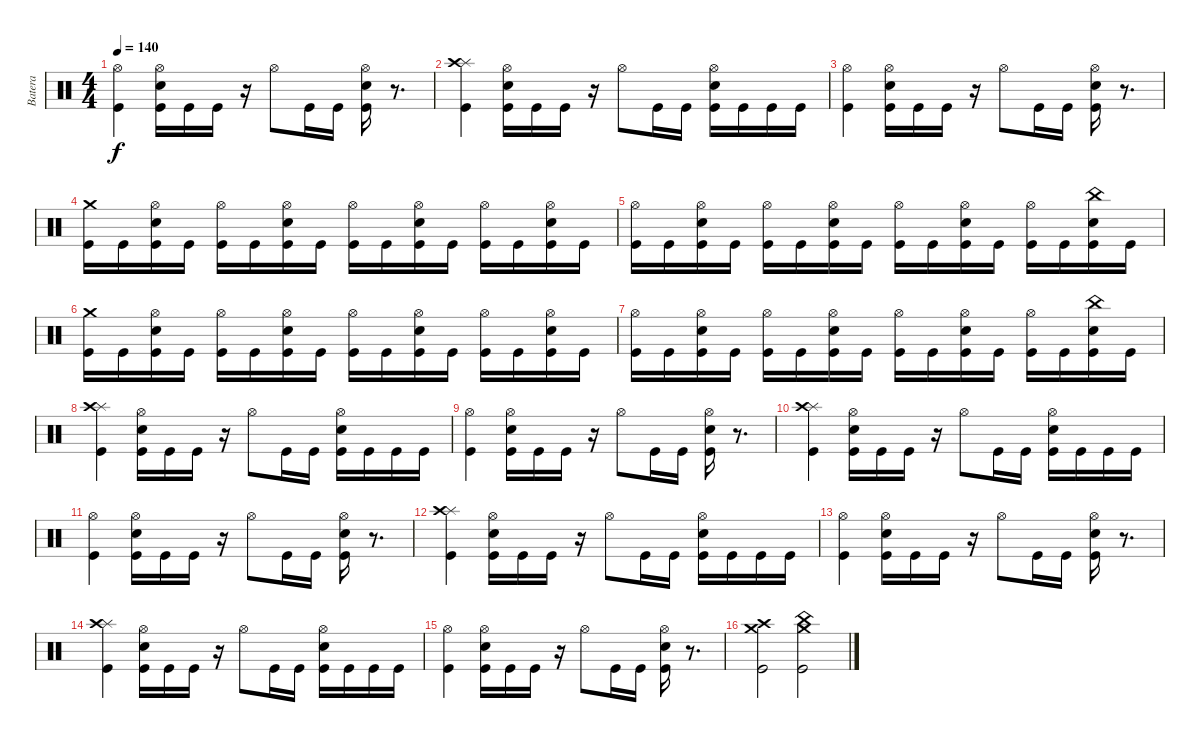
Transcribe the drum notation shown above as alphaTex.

\track ("Batera" "Batera") {instrument percussion}
\staff {score}
\articulation defaults
\ts (4 4)
\tempo 140
\clef neutral
\ks c
("Hi-Hat (open)" "Kick (hit)").4{dy f} ("Hi-Hat (open)" "Snare (hit) 2" "Kick (hit)").16 "Kick (hit)".16 "Kick (hit)".16 r.16 "Hi-Hat (open)".8 "Kick (hit)".16 "Kick (hit)".16 ("Hi-Hat (open)" "Snare (hit) 2" "Kick (hit)").16 r.8{d} |
("Splash (hit)" "Crash high (hit)" "Kick (hit)").4 ("Hi-Hat (open)" "Snare (hit) 2" "Kick (hit)").16 "Kick (hit)".16 "Kick (hit)".16 r.16 "Hi-Hat (open)".8 "Kick (hit)".16 "Kick (hit)".16 ("Hi-Hat (open)" "Snare (hit) 2" "Kick (hit)").16 "Kick (hit)".16 "Kick (hit)".16 "Kick (hit)".16 |
("Hi-Hat (open)" "Kick (hit)").4 ("Hi-Hat (open)" "Snare (hit) 2" "Kick (hit)").16 "Kick (hit)".16 "Kick (hit)".16 r.16 "Hi-Hat (open)".8 "Kick (hit)".16 "Kick (hit)".16 ("Hi-Hat (open)" "Snare (hit) 2" "Kick (hit)").16 r.8{d} |
("Crash medium (hit)" "Kick (hit)").16 "Kick (hit)".16 ("Hi-Hat (open)" "Snare (hit) 2" "Kick (hit)").16 "Kick (hit)".16 ("Hi-Hat (open)" "Kick (hit)").16 "Kick (hit)".16 ("Hi-Hat (open)" "Snare (hit) 2" "Kick (hit)").16 "Kick (hit)".16 ("Hi-Hat (open)" "Kick (hit)").16 "Kick (hit)".16 ("Hi-Hat (open)" "Snare (hit) 2" "Kick (hit)").16 "Kick (hit)".16 ("Hi-Hat (open)" "Kick (hit)").16 "Kick (hit)".16 ("Hi-Hat (open)" "Snare (hit) 2" "Kick (hit)").16 "Kick (hit)".16 |
("Hi-Hat (open)" "Kick (hit)").16 "Kick (hit)".16 ("Hi-Hat (open)" "Snare (hit) 2" "Kick (hit)").16 "Kick (hit)".16 ("Hi-Hat (open)" "Kick (hit)").16 "Kick (hit)".16 ("Hi-Hat (open)" "Snare (hit) 2" "Kick (hit)").16 "Kick (hit)".16 ("Hi-Hat (open)" "Kick (hit)").16 "Kick (hit)".16 ("Hi-Hat (open)" "Snare (hit) 2" "Kick (hit)").16 "Kick (hit)".16 ("Hi-Hat (open)" "Kick (hit)").16 "Kick (hit)".16 ("China (hit)" "Snare (hit) 2" "Kick (hit)").16 "Kick (hit)".16 |
("Crash medium (hit)" "Kick (hit)").16 "Kick (hit)".16 ("Hi-Hat (open)" "Snare (hit) 2" "Kick (hit)").16 "Kick (hit)".16 ("Hi-Hat (open)" "Kick (hit)").16 "Kick (hit)".16 ("Hi-Hat (open)" "Snare (hit) 2" "Kick (hit)").16 "Kick (hit)".16 ("Hi-Hat (open)" "Kick (hit)").16 "Kick (hit)".16 ("Hi-Hat (open)" "Snare (hit) 2" "Kick (hit)").16 "Kick (hit)".16 ("Hi-Hat (open)" "Kick (hit)").16 "Kick (hit)".16 ("Hi-Hat (open)" "Snare (hit) 2" "Kick (hit)").16 "Kick (hit)".16 |
("Hi-Hat (open)" "Kick (hit)").16 "Kick (hit)".16 ("Hi-Hat (open)" "Snare (hit) 2" "Kick (hit)").16 "Kick (hit)".16 ("Hi-Hat (open)" "Kick (hit)").16 "Kick (hit)".16 ("Hi-Hat (open)" "Snare (hit) 2" "Kick (hit)").16 "Kick (hit)".16 ("Hi-Hat (open)" "Kick (hit)").16 "Kick (hit)".16 ("Hi-Hat (open)" "Snare (hit) 2" "Kick (hit)").16 "Kick (hit)".16 ("Hi-Hat (open)" "Kick (hit)").16 "Kick (hit)".16 ("China (hit)" "Snare (hit) 2" "Kick (hit)").16 "Kick (hit)".16 |
("Splash (hit)" "Crash high (hit)" "Kick (hit)").4 ("Hi-Hat (open)" "Snare (hit) 2" "Kick (hit)").16 "Kick (hit)".16 "Kick (hit)".16 r.16 "Hi-Hat (open)".8 "Kick (hit)".16 "Kick (hit)".16 ("Hi-Hat (open)" "Snare (hit) 2" "Kick (hit)").16 "Kick (hit)".16 "Kick (hit)".16 "Kick (hit)".16 |
("Hi-Hat (open)" "Kick (hit)").4 ("Hi-Hat (open)" "Snare (hit) 2" "Kick (hit)").16 "Kick (hit)".16 "Kick (hit)".16 r.16 "Hi-Hat (open)".8 "Kick (hit)".16 "Kick (hit)".16 ("Hi-Hat (open)" "Snare (hit) 2" "Kick (hit)").16 r.8{d} |
("Splash (hit)" "Crash high (hit)" "Kick (hit)").4 ("Hi-Hat (open)" "Snare (hit) 2" "Kick (hit)").16 "Kick (hit)".16 "Kick (hit)".16 r.16 "Hi-Hat (open)".8 "Kick (hit)".16 "Kick (hit)".16 ("Hi-Hat (open)" "Snare (hit) 2" "Kick (hit)").16 "Kick (hit)".16 "Kick (hit)".16 "Kick (hit)".16 |
("Hi-Hat (open)" "Kick (hit)").4 ("Hi-Hat (open)" "Snare (hit) 2" "Kick (hit)").16 "Kick (hit)".16 "Kick (hit)".16 r.16 "Hi-Hat (open)".8 "Kick (hit)".16 "Kick (hit)".16 ("Hi-Hat (open)" "Snare (hit) 2" "Kick (hit)").16 r.8{d} |
("Splash (hit)" "Crash high (hit)" "Kick (hit)").4 ("Hi-Hat (open)" "Snare (hit) 2" "Kick (hit)").16 "Kick (hit)".16 "Kick (hit)".16 r.16 "Hi-Hat (open)".8 "Kick (hit)".16 "Kick (hit)".16 ("Hi-Hat (open)" "Snare (hit) 2" "Kick (hit)").16 "Kick (hit)".16 "Kick (hit)".16 "Kick (hit)".16 |
("Hi-Hat (open)" "Kick (hit)").4 ("Hi-Hat (open)" "Snare (hit) 2" "Kick (hit)").16 "Kick (hit)".16 "Kick (hit)".16 r.16 "Hi-Hat (open)".8 "Kick (hit)".16 "Kick (hit)".16 ("Hi-Hat (open)" "Snare (hit) 2" "Kick (hit)").16 r.8{d} |
("Splash (hit)" "Crash high (hit)" "Kick (hit)").4 ("Hi-Hat (open)" "Snare (hit) 2" "Kick (hit)").16 "Kick (hit)".16 "Kick (hit)".16 r.16 "Hi-Hat (open)".8 "Kick (hit)".16 "Kick (hit)".16 ("Hi-Hat (open)" "Snare (hit) 2" "Kick (hit)").16 "Kick (hit)".16 "Kick (hit)".16 "Kick (hit)".16 |
("Hi-Hat (open)" "Kick (hit)").4 ("Hi-Hat (open)" "Snare (hit) 2" "Kick (hit)").16 "Kick (hit)".16 "Kick (hit)".16 r.16 "Hi-Hat (open)".8 "Kick (hit)".16 "Kick (hit)".16 ("Hi-Hat (open)" "Snare (hit) 2" "Kick (hit)").16 r.8{d} |
("Crash medium (hit)" "Crash high (hit)" "Kick (hit)").2 ("China (hit)" "Crash medium (hit)" "Kick (hit)").2
